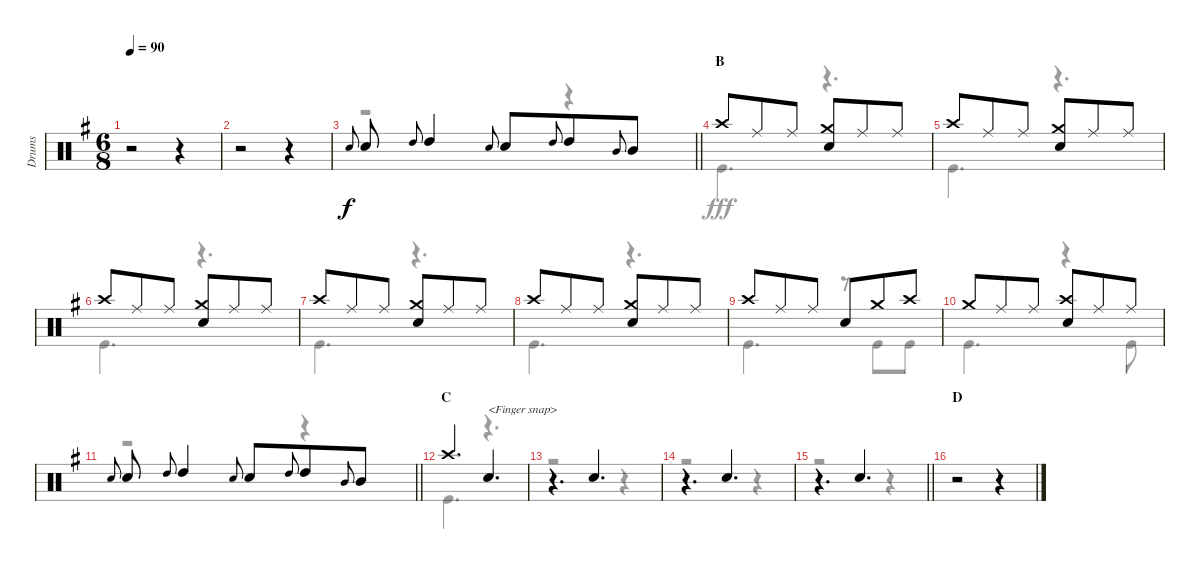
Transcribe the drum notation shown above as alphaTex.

\track ("Drums" "Drums") {instrument percussion}
\staff {score}
\articulation defaults
\voice
\ts (6 8)
\tempo 90
\clef neutral
\ks g
r.2{dy f} r.4 |
r.2 r.4 |
\barLineRight lightlight "Snare (hit) 2".8{gr onbeat} "Snare (hit) 2".8 "High Tom (hit)".8{gr onbeat} "High Tom (hit)".4 "Snare (hit) 2".8{gr onbeat} "Snare (hit) 2".8 "High Tom (hit)".8{gr onbeat} "High Tom (hit)".8 "Mid Tom (hit)".8{gr onbeat} "Mid Tom (hit)".8
|
\section ("" "B")
"Crash high (hit)".8 "Ride (middle)".8 "Ride (middle)".8 ("Crash medium (hit)" "Snare (hit) 2").8 "Ride (middle)".8 "Ride (middle)".8 |
"Crash high (hit)".8 "Ride (middle)".8 "Ride (middle)".8 ("Crash medium (hit)" "Snare (hit) 2").8 "Ride (middle)".8 "Ride (middle)".8 |
"Crash high (hit)".8 "Ride (middle)".8 "Ride (middle)".8 ("Crash medium (hit)" "Snare (hit) 2").8 "Ride (middle)".8 "Ride (middle)".8 |
"Crash high (hit)".8 "Ride (middle)".8 "Ride (middle)".8 ("Crash medium (hit)" "Snare (hit) 2").8 "Ride (middle)".8 "Ride (middle)".8 |
"Crash high (hit)".8 "Ride (middle)".8 "Ride (middle)".8 ("Crash medium (hit)" "Snare (hit) 2").8 "Ride (middle)".8 "Ride (middle)".8 |
"Crash high (hit)".8 "Ride (middle)".8 "Ride (middle)".8 "Snare (hit) 2".8 "Crash medium (hit)".8 "Crash high (hit)".8 |
"Crash medium (hit)".8 "Ride (middle)".8 "Ride (middle)".8 ("Crash high (hit)" "Snare (hit) 2").8 "Ride (middle)".8 "Ride (middle)".8 |
\barLineRight lightlight "Snare (hit) 2".8{gr onbeat} "Snare (hit) 2".8 "High Tom (hit)".8{gr onbeat} "High Tom (hit)".4 "Snare (hit) 2".8{gr onbeat} "Snare (hit) 2".8 "High Tom (hit)".8{gr onbeat} "High Tom (hit)".8 "Mid Tom (hit)".8{gr onbeat} "Mid Tom (hit)".8
|
\section ("" "C")
"Crash high (hit)".4{d} "Hand Clap (hit)".4{d txt "<Finger snap>"} |
r.4{d} "Hand Clap (hit)".4{d} |
r.4{d} "Hand Clap (hit)".4{d} |
\barLineRight lightlight
r.4{d} "Hand Clap (hit)".4{d} |
\section ("" "D")
r.2 r.4
\voice
\clef neutral
\ottava regular
\simile none
\ks g
r.2{dy fff} r.4 |
r.2 r.4 |
\barLineRight lightlight
r.2 r.4 |
"Kick (hit)".4{d} r.4{d} |
"Kick (hit)".4{d} r.4{d} |
"Kick (hit)".4{d} r.4{d} |
"Kick (hit)".4{d} r.4{d} |
"Kick (hit)".4{d} r.4{d} |
"Kick (hit)".4{d} r.8 "Kick (hit)".8 "Kick (hit)".8 |
"Kick (hit)".4{d} r.4 "Kick (hit)".8 |
\barLineRight lightlight
r.2 r.4 |
"Kick (hit)".4{d} r.4{d} |
r.2 r.4 |
r.2 r.4 |
\barLineRight lightlight
r.2 r.4 |
r.2 r.4
